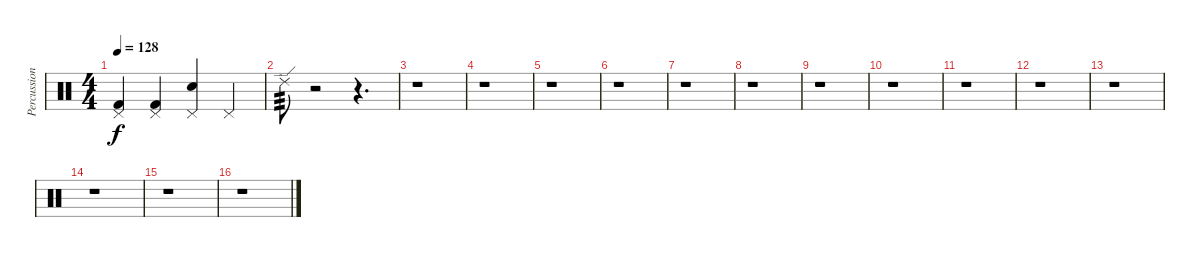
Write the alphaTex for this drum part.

\track ("Percussion" "Percussion") {instrument percussion}
\staff {score}
\articulation defaults
\ts (4 4)
\tempo 128
\clef neutral
\ks c
("Kick (hit) 2" "Pedal Hi-Hat (hit)").4{dy f} ("Kick (hit) 2" "Pedal Hi-Hat (hit)").4 ("Electric Snare (hit)" "Pedal Hi-Hat (hit)").4 "Pedal Hi-Hat (hit)".4 |
"Ride (edge) 2".8{tp 3} r.2 r.4{d} |
r.1 |
r.1 |
r.1 |
r.1 |
r.1 |
r.1 |
r.1 |
r.1 |
r.1 |
r.1 |
r.1 |
r.1 |
r.1 |
r.1
